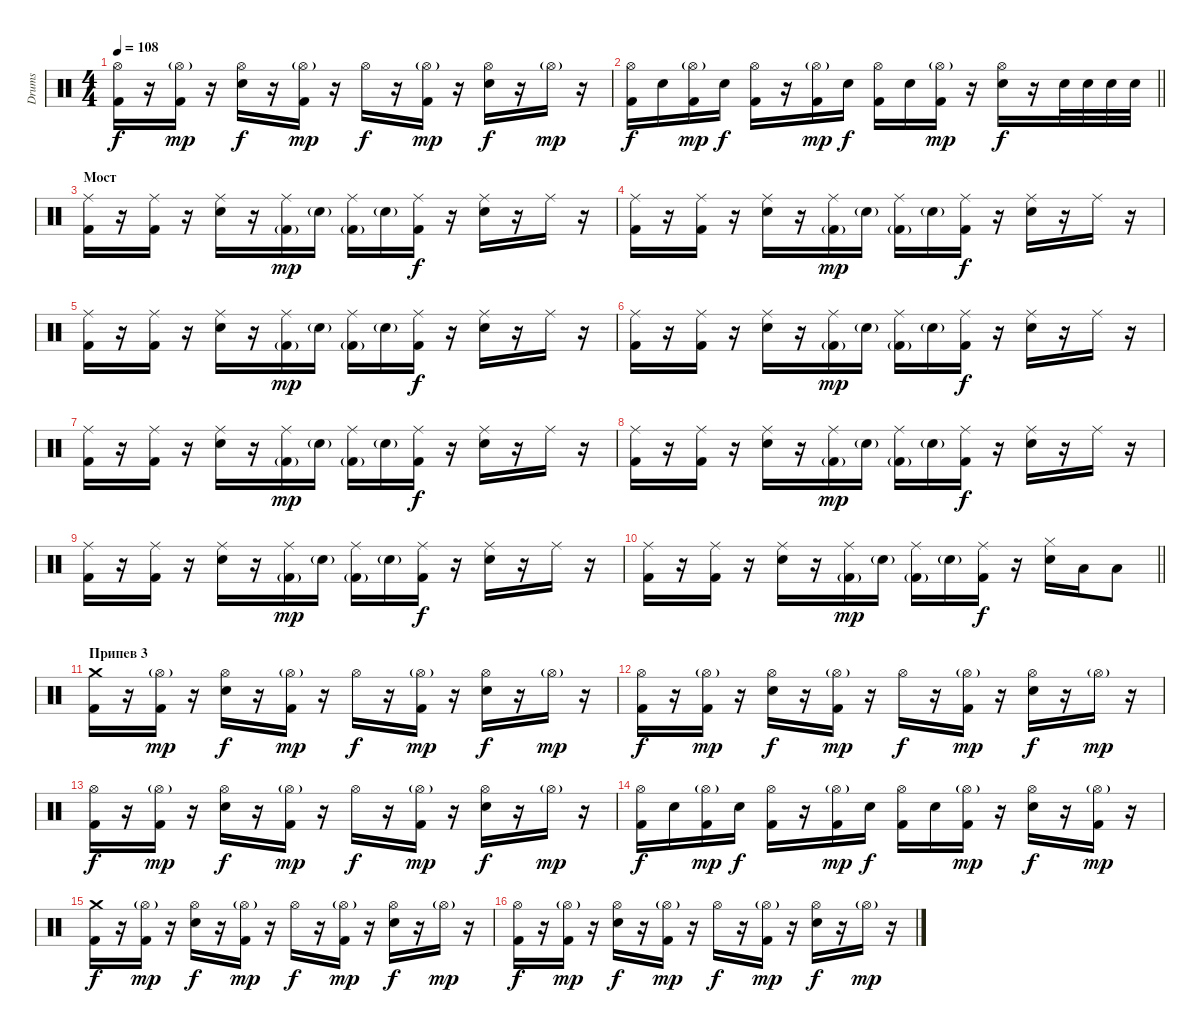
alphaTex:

\track ("Drums" "Drums") {instrument percussion}
\staff {score}
\articulation defaults
\ts (4 4)
\tempo 108
\clef neutral
\ks c
("Hi-Hat (open)" "Kick (hit) 2").16{dy f} r.16 ("Hi-Hat (open)"{g} "Kick (hit) 2").16{dy mp} r.16 ("Hi-Hat (open)" "Electric Snare (hit)").16{dy f} r.16 ("Hi-Hat (open)"{g} "Kick (hit) 2").16{dy mp} r.16 "Hi-Hat (open)".16{dy f} r.16 ("Hi-Hat (open)"{g} "Kick (hit) 2").16{dy mp} r.16 ("Hi-Hat (open)" "Electric Snare (hit)").16{dy f} r.16 "Hi-Hat (open)"{g}.16{dy mp} r.16 |
\barLineRight lightlight
("Hi-Hat (open)" "Kick (hit) 2").16{dy f} "Electric Snare (hit)".16 ("Hi-Hat (open)"{g} "Kick (hit) 2").16{dy mp} "Electric Snare (hit)".16{dy f} ("Hi-Hat (open)" "Kick (hit) 2").16 r.16 ("Hi-Hat (open)"{g} "Kick (hit) 2").16{dy mp} "Electric Snare (hit)".16{dy f} ("Hi-Hat (open)" "Kick (hit) 2").16 "Electric Snare (hit)".16 ("Hi-Hat (open)"{g} "Kick (hit) 2").16{dy mp} r.16 ("Hi-Hat (open)" "Electric Snare (hit)").16{dy f} r.16 "Electric Snare (hit)".32 "Electric Snare (hit)".32 "Electric Snare (hit)".32 "Electric Snare (hit)".32 |
\section ("" "Мост")
("Ride (middle)" "Kick (hit) 2").16 r.16 ("Ride (middle)" "Kick (hit) 2").16 r.16 ("Ride (middle)" "Electric Snare (hit)").16 r.16 ("Ride (middle)" "Kick (hit) 2"{g}).16{dy mp} "Electric Snare (hit)"{g}.16 ("Ride (middle)" "Kick (hit) 2"{g}).16 "Electric Snare (hit)"{g}.16 ("Ride (middle)" "Kick (hit) 2").16{dy f} r.16 ("Ride (middle)" "Electric Snare (hit)").16 r.16 "Ride (middle)".16 r.16 |
("Ride (middle)" "Kick (hit) 2").16 r.16 ("Ride (middle)" "Kick (hit) 2").16 r.16 ("Ride (middle)" "Electric Snare (hit)").16 r.16 ("Ride (middle)" "Kick (hit) 2"{g}).16{dy mp} "Electric Snare (hit)"{g}.16 ("Ride (middle)" "Kick (hit) 2"{g}).16 "Electric Snare (hit)"{g}.16 ("Ride (middle)" "Kick (hit) 2").16{dy f} r.16 ("Ride (middle)" "Electric Snare (hit)").16 r.16 "Ride (middle)".16 r.16 |
("Ride (middle)" "Kick (hit) 2").16 r.16 ("Ride (middle)" "Kick (hit) 2").16 r.16 ("Ride (middle)" "Electric Snare (hit)").16 r.16 ("Ride (middle)" "Kick (hit) 2"{g}).16{dy mp} "Electric Snare (hit)"{g}.16 ("Ride (middle)" "Kick (hit) 2"{g}).16 "Electric Snare (hit)"{g}.16 ("Ride (middle)" "Kick (hit) 2").16{dy f} r.16 ("Ride (middle)" "Electric Snare (hit)").16 r.16 "Ride (middle)".16 r.16 |
("Ride (middle)" "Kick (hit) 2").16 r.16 ("Ride (middle)" "Kick (hit) 2").16 r.16 ("Ride (middle)" "Electric Snare (hit)").16 r.16 ("Ride (middle)" "Kick (hit) 2"{g}).16{dy mp} "Electric Snare (hit)"{g}.16 ("Ride (middle)" "Kick (hit) 2"{g}).16 "Electric Snare (hit)"{g}.16 ("Ride (middle)" "Kick (hit) 2").16{dy f} r.16 ("Ride (middle)" "Electric Snare (hit)").16 r.16 "Ride (middle)".16 r.16 |
("Ride (middle)" "Kick (hit) 2").16 r.16 ("Ride (middle)" "Kick (hit) 2").16 r.16 ("Ride (middle)" "Electric Snare (hit)").16 r.16 ("Ride (middle)" "Kick (hit) 2"{g}).16{dy mp} "Electric Snare (hit)"{g}.16 ("Ride (middle)" "Kick (hit) 2"{g}).16 "Electric Snare (hit)"{g}.16 ("Ride (middle)" "Kick (hit) 2").16{dy f} r.16 ("Ride (middle)" "Electric Snare (hit)").16 r.16 "Ride (middle)".16 r.16 |
("Ride (middle)" "Kick (hit) 2").16 r.16 ("Ride (middle)" "Kick (hit) 2").16 r.16 ("Ride (middle)" "Electric Snare (hit)").16 r.16 ("Ride (middle)" "Kick (hit) 2"{g}).16{dy mp} "Electric Snare (hit)"{g}.16 ("Ride (middle)" "Kick (hit) 2"{g}).16 "Electric Snare (hit)"{g}.16 ("Ride (middle)" "Kick (hit) 2").16{dy f} r.16 ("Ride (middle)" "Electric Snare (hit)").16 r.16 "Ride (middle)".16 r.16 |
("Ride (middle)" "Kick (hit) 2").16 r.16 ("Ride (middle)" "Kick (hit) 2").16 r.16 ("Ride (middle)" "Electric Snare (hit)").16 r.16 ("Ride (middle)" "Kick (hit) 2"{g}).16{dy mp} "Electric Snare (hit)"{g}.16 ("Ride (middle)" "Kick (hit) 2"{g}).16 "Electric Snare (hit)"{g}.16 ("Ride (middle)" "Kick (hit) 2").16{dy f} r.16 ("Ride (middle)" "Electric Snare (hit)").16 r.16 "Ride (middle)".16 r.16 |
\barLineRight lightlight
("Ride (middle)" "Kick (hit) 2").16 r.16 ("Ride (middle)" "Kick (hit) 2").16 r.16 ("Ride (middle)" "Electric Snare (hit)").16 r.16 ("Ride (middle)" "Kick (hit) 2"{g}).16{dy mp} "Electric Snare (hit)"{g}.16 ("Ride (middle)" "Kick (hit) 2"{g}).16 "Electric Snare (hit)"{g}.16 ("Ride (middle)" "Kick (hit) 2").16{dy f} r.16 ("Hi-Hat (closed)" "Electric Snare (hit)").16 "Low Floor Tom (hit)".16 "Low Tom (hit)".8 |
\section ("" "Припев 3")
("Crash medium (hit)" "Kick (hit) 2").16 r.16 ("Hi-Hat (open)"{g} "Kick (hit) 2").16{dy mp} r.16 ("Hi-Hat (open)" "Electric Snare (hit)").16{dy f} r.16 ("Hi-Hat (open)"{g} "Kick (hit) 2").16{dy mp} r.16 "Hi-Hat (open)".16{dy f} r.16 ("Hi-Hat (open)"{g} "Kick (hit) 2").16{dy mp} r.16 ("Hi-Hat (open)" "Electric Snare (hit)").16{dy f} r.16 "Hi-Hat (open)"{g}.16{dy mp} r.16 |
("Hi-Hat (open)" "Kick (hit) 2").16{dy f} r.16 ("Hi-Hat (open)"{g} "Kick (hit) 2").16{dy mp} r.16 ("Hi-Hat (open)" "Electric Snare (hit)").16{dy f} r.16 ("Hi-Hat (open)"{g} "Kick (hit) 2").16{dy mp} r.16 "Hi-Hat (open)".16{dy f} r.16 ("Hi-Hat (open)"{g} "Kick (hit) 2").16{dy mp} r.16 ("Hi-Hat (open)" "Electric Snare (hit)").16{dy f} r.16 "Hi-Hat (open)"{g}.16{dy mp} r.16 |
("Hi-Hat (open)" "Kick (hit) 2").16{dy f} r.16 ("Hi-Hat (open)"{g} "Kick (hit) 2").16{dy mp} r.16 ("Hi-Hat (open)" "Electric Snare (hit)").16{dy f} r.16 ("Hi-Hat (open)"{g} "Kick (hit) 2").16{dy mp} r.16 "Hi-Hat (open)".16{dy f} r.16 ("Hi-Hat (open)"{g} "Kick (hit) 2").16{dy mp} r.16 ("Hi-Hat (open)" "Electric Snare (hit)").16{dy f} r.16 "Hi-Hat (open)"{g}.16{dy mp} r.16 |
("Hi-Hat (open)" "Kick (hit) 2").16{dy f} "Electric Snare (hit)".16 ("Hi-Hat (open)"{g} "Kick (hit) 2").16{dy mp} "Electric Snare (hit)".16{dy f} ("Hi-Hat (open)" "Kick (hit) 2").16 r.16 ("Hi-Hat (open)"{g} "Kick (hit) 2").16{dy mp} "Electric Snare (hit)".16{dy f} ("Hi-Hat (open)" "Kick (hit) 2").16 "Electric Snare (hit)".16 ("Hi-Hat (open)"{g} "Kick (hit) 2").16{dy mp} r.16 ("Hi-Hat (open)" "Electric Snare (hit)").16{dy f} r.16 ("Hi-Hat (open)"{g} "Kick (hit) 2").16{dy mp} r.16 |
("Crash medium (hit)" "Kick (hit) 2").16{dy f} r.16 ("Hi-Hat (open)"{g} "Kick (hit) 2").16{dy mp} r.16 ("Hi-Hat (open)" "Electric Snare (hit)").16{dy f} r.16 ("Hi-Hat (open)"{g} "Kick (hit) 2").16{dy mp} r.16 "Hi-Hat (open)".16{dy f} r.16 ("Hi-Hat (open)"{g} "Kick (hit) 2").16{dy mp} r.16 ("Hi-Hat (open)" "Electric Snare (hit)").16{dy f} r.16 "Hi-Hat (open)"{g}.16{dy mp} r.16 |
("Hi-Hat (open)" "Kick (hit) 2").16{dy f} r.16 ("Hi-Hat (open)"{g} "Kick (hit) 2").16{dy mp} r.16 ("Hi-Hat (open)" "Electric Snare (hit)").16{dy f} r.16 ("Hi-Hat (open)"{g} "Kick (hit) 2").16{dy mp} r.16 "Hi-Hat (open)".16{dy f} r.16 ("Hi-Hat (open)"{g} "Kick (hit) 2").16{dy mp} r.16 ("Hi-Hat (open)" "Electric Snare (hit)").16{dy f} r.16 "Hi-Hat (open)"{g}.16{dy mp} r.16
